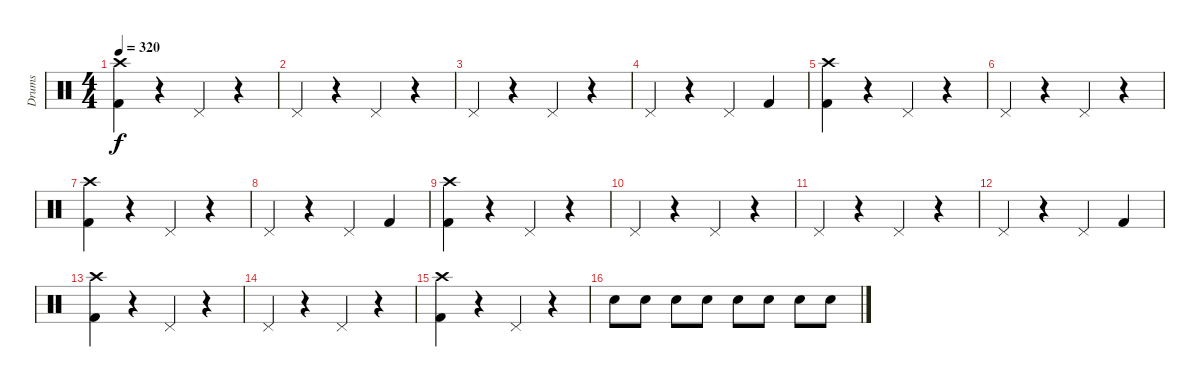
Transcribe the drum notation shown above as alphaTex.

\track ("Drums" "Drums") {instrument percussion}
\staff {score}
\articulation defaults
\ts (4 4)
\tempo 320
\clef neutral
\ks c
("Crash high (hit)" "Kick (hit) 2").4{dy f} r.4 "Pedal Hi-Hat (hit)".4 r.4 |
"Pedal Hi-Hat (hit)".4 r.4 "Pedal Hi-Hat (hit)".4 r.4 |
"Pedal Hi-Hat (hit)".4 r.4 "Pedal Hi-Hat (hit)".4 r.4 |
"Pedal Hi-Hat (hit)".4 r.4 "Pedal Hi-Hat (hit)".4 "Kick (hit) 2".4 |
("Kick (hit) 2" "Crash high (hit)").4 r.4 "Pedal Hi-Hat (hit)".4 r.4 |
"Pedal Hi-Hat (hit)".4 r.4 "Pedal Hi-Hat (hit)".4 r.4 |
("Crash high (hit)" "Kick (hit) 2").4 r.4 "Pedal Hi-Hat (hit)".4 r.4 |
"Pedal Hi-Hat (hit)".4 r.4 "Pedal Hi-Hat (hit)".4 "Kick (hit) 2".4 |
("Crash high (hit)" "Kick (hit) 2").4 r.4 "Pedal Hi-Hat (hit)".4 r.4 |
"Pedal Hi-Hat (hit)".4 r.4 "Pedal Hi-Hat (hit)".4 r.4 |
"Pedal Hi-Hat (hit)".4 r.4 "Pedal Hi-Hat (hit)".4 r.4 |
"Pedal Hi-Hat (hit)".4 r.4 "Pedal Hi-Hat (hit)".4 "Kick (hit) 2".4 |
("Kick (hit) 2" "Crash high (hit)").4 r.4 "Pedal Hi-Hat (hit)".4 r.4 |
"Pedal Hi-Hat (hit)".4 r.4 "Pedal Hi-Hat (hit)".4 r.4 |
("Crash high (hit)" "Kick (hit) 2").4 r.4 "Pedal Hi-Hat (hit)".4 r.4 |
"Snare (hit) 2".8 "Snare (hit) 2".8 "Snare (hit) 2".8 "Snare (hit) 2".8 "Snare (hit) 2".8 "Snare (hit) 2".8 "Snare (hit) 2".8 "Snare (hit) 2".8
